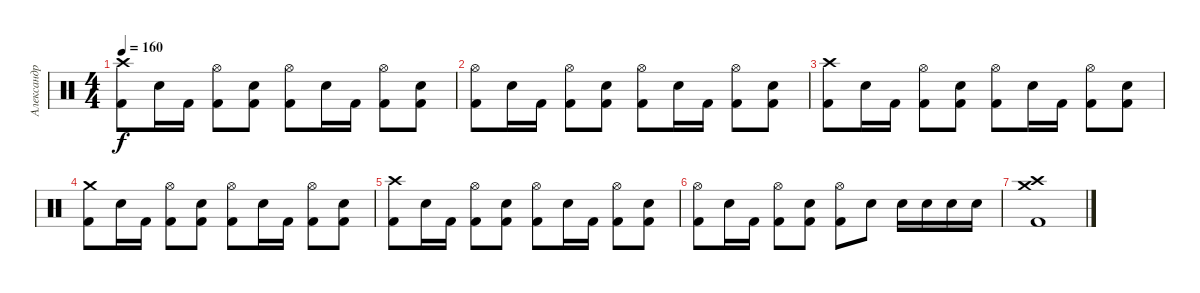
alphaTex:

\track ("Александр Карпухин" "Александр ") {instrument percussion}
\staff {score}
\articulation defaults
\ts (4 4)
\tempo 160
\clef neutral
\ks c
("Crash high (hit)" "Kick (hit) 2").8{dy f} "Electric Snare (hit)".16 "Kick (hit) 2".16 ("Hi-Hat (open)" "Kick (hit) 2").8 ("Electric Snare (hit)" "Kick (hit) 2").8 ("Hi-Hat (open)" "Kick (hit) 2").8 "Electric Snare (hit)".16 "Kick (hit) 2".16 ("Hi-Hat (open)" "Kick (hit) 2").8 ("Electric Snare (hit)" "Kick (hit) 2").8 |
("Hi-Hat (open)" "Kick (hit) 2").8 "Electric Snare (hit)".16 "Kick (hit) 2".16 ("Hi-Hat (open)" "Kick (hit) 2").8 ("Electric Snare (hit)" "Kick (hit) 2").8 ("Hi-Hat (open)" "Kick (hit) 2").8 "Electric Snare (hit)".16 "Kick (hit) 2".16 ("Hi-Hat (open)" "Kick (hit) 2").8 ("Electric Snare (hit)" "Kick (hit) 2").8 |
("Crash high (hit)" "Kick (hit) 2").8 "Electric Snare (hit)".16 "Kick (hit) 2".16 ("Hi-Hat (open)" "Kick (hit) 2").8 ("Electric Snare (hit)" "Kick (hit) 2").8 ("Hi-Hat (open)" "Kick (hit) 2").8 "Electric Snare (hit)".16 "Kick (hit) 2".16 ("Hi-Hat (open)" "Kick (hit) 2").8 ("Electric Snare (hit)" "Kick (hit) 2").8 |
("Crash medium (hit)" "Kick (hit) 2").8 "Electric Snare (hit)".16 "Kick (hit) 2".16 ("Hi-Hat (open)" "Kick (hit) 2").8 ("Electric Snare (hit)" "Kick (hit) 2").8 ("Hi-Hat (open)" "Kick (hit) 2").8 "Electric Snare (hit)".16 "Kick (hit) 2".16 ("Hi-Hat (open)" "Kick (hit) 2").8 ("Electric Snare (hit)" "Kick (hit) 2").8 |
("Crash high (hit)" "Kick (hit) 2").8 "Electric Snare (hit)".16 "Kick (hit) 2".16 ("Hi-Hat (open)" "Kick (hit) 2").8 ("Electric Snare (hit)" "Kick (hit) 2").8 ("Hi-Hat (open)" "Kick (hit) 2").8 "Electric Snare (hit)".16 "Kick (hit) 2".16 ("Hi-Hat (open)" "Kick (hit) 2").8 ("Electric Snare (hit)" "Kick (hit) 2").8 |
("Hi-Hat (open)" "Kick (hit) 2").8 "Electric Snare (hit)".16 "Kick (hit) 2".16 ("Hi-Hat (open)" "Kick (hit) 2").8 ("Electric Snare (hit)" "Kick (hit) 2").8 ("Hi-Hat (open)" "Kick (hit) 2").8 "Electric Snare (hit)".8 "Electric Snare (hit)".16 "Electric Snare (hit)".16 "Electric Snare (hit)".16 "Electric Snare (hit)".16 |
("Crash high (hit)" "Crash medium (hit)" "Kick (hit) 2").1
